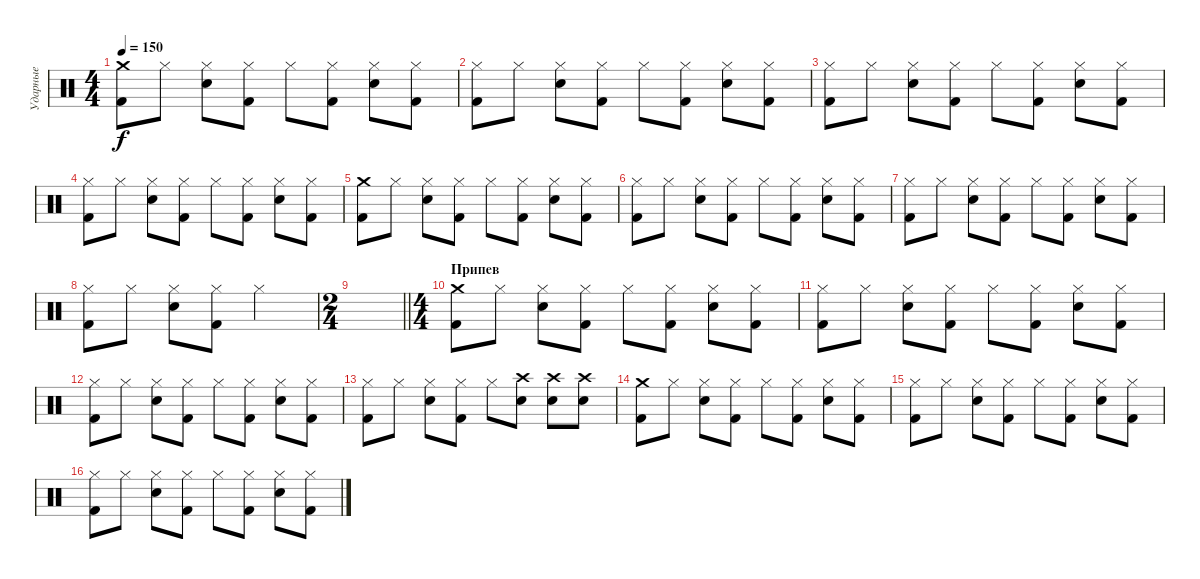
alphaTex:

\track ("Ударные" "Ударные") {instrument percussion}
\staff {score}
\articulation defaults
\ts (4 4)
\tempo 150
\clef neutral
\ks c
("Crash medium (hit)" "Kick (hit) 2").8{dy f} "Hi-Hat (closed)".8 ("Hi-Hat (closed)" "Electric Snare (hit)").8 ("Hi-Hat (closed)" "Kick (hit) 2").8 "Hi-Hat (closed)".8 ("Hi-Hat (closed)" "Kick (hit) 2").8 ("Hi-Hat (closed)" "Electric Snare (hit)").8 ("Hi-Hat (closed)" "Kick (hit) 2").8 |
("Hi-Hat (closed)" "Kick (hit) 2").8 "Hi-Hat (closed)".8 ("Hi-Hat (closed)" "Electric Snare (hit)").8 ("Hi-Hat (closed)" "Kick (hit) 2").8 "Hi-Hat (closed)".8 ("Hi-Hat (closed)" "Kick (hit) 2").8 ("Hi-Hat (closed)" "Electric Snare (hit)").8 ("Hi-Hat (closed)" "Kick (hit) 2").8 |
("Hi-Hat (closed)" "Kick (hit) 2").8 "Hi-Hat (closed)".8 ("Hi-Hat (closed)" "Electric Snare (hit)").8 ("Hi-Hat (closed)" "Kick (hit) 2").8 "Hi-Hat (closed)".8 ("Hi-Hat (closed)" "Kick (hit) 2").8 ("Hi-Hat (closed)" "Electric Snare (hit)").8 ("Hi-Hat (closed)" "Kick (hit) 2").8 |
("Hi-Hat (closed)" "Kick (hit) 2").8 "Hi-Hat (closed)".8 ("Hi-Hat (closed)" "Electric Snare (hit)").8 ("Hi-Hat (closed)" "Kick (hit) 2").8 "Hi-Hat (closed)".8 ("Hi-Hat (closed)" "Kick (hit) 2").8 ("Hi-Hat (closed)" "Electric Snare (hit)").8 ("Hi-Hat (closed)" "Kick (hit) 2").8 |
("Crash medium (hit)" "Kick (hit) 2").8 "Hi-Hat (closed)".8 ("Hi-Hat (closed)" "Electric Snare (hit)").8 ("Hi-Hat (closed)" "Kick (hit) 2").8 "Hi-Hat (closed)".8 ("Hi-Hat (closed)" "Kick (hit) 2").8 ("Hi-Hat (closed)" "Electric Snare (hit)").8 ("Hi-Hat (closed)" "Kick (hit) 2").8 |
("Hi-Hat (closed)" "Kick (hit) 2").8 "Hi-Hat (closed)".8 ("Hi-Hat (closed)" "Electric Snare (hit)").8 ("Hi-Hat (closed)" "Kick (hit) 2").8 "Hi-Hat (closed)".8 ("Hi-Hat (closed)" "Kick (hit) 2").8 ("Hi-Hat (closed)" "Electric Snare (hit)").8 ("Hi-Hat (closed)" "Kick (hit) 2").8 |
("Hi-Hat (closed)" "Kick (hit) 2").8 "Hi-Hat (closed)".8 ("Hi-Hat (closed)" "Electric Snare (hit)").8 ("Hi-Hat (closed)" "Kick (hit) 2").8 "Hi-Hat (closed)".8 ("Hi-Hat (closed)" "Kick (hit) 2").8 ("Hi-Hat (closed)" "Electric Snare (hit)").8 ("Hi-Hat (closed)" "Kick (hit) 2").8 |
("Hi-Hat (closed)" "Kick (hit) 2").8 "Hi-Hat (closed)".8 ("Hi-Hat (closed)" "Electric Snare (hit)").8 ("Hi-Hat (closed)" "Kick (hit) 2").8 "Hi-Hat (closed)".2 |
\ts (2 4)
\barLineRight lightlight
|
\ts (4 4)
\section ("" "Припев")
("Crash medium (hit)" "Kick (hit) 2").8 "Hi-Hat (closed)".8 ("Hi-Hat (closed)" "Electric Snare (hit)").8 ("Hi-Hat (closed)" "Kick (hit) 2").8 "Hi-Hat (closed)".8 ("Hi-Hat (closed)" "Kick (hit) 2").8 ("Hi-Hat (closed)" "Electric Snare (hit)").8 ("Hi-Hat (closed)" "Kick (hit) 2").8 |
("Hi-Hat (closed)" "Kick (hit) 2").8 "Hi-Hat (closed)".8 ("Hi-Hat (closed)" "Electric Snare (hit)").8 ("Hi-Hat (closed)" "Kick (hit) 2").8 "Hi-Hat (closed)".8 ("Hi-Hat (closed)" "Kick (hit) 2").8 ("Hi-Hat (closed)" "Electric Snare (hit)").8 ("Hi-Hat (closed)" "Kick (hit) 2").8 |
("Hi-Hat (closed)" "Kick (hit) 2").8 "Hi-Hat (closed)".8 ("Hi-Hat (closed)" "Electric Snare (hit)").8 ("Hi-Hat (closed)" "Kick (hit) 2").8 "Hi-Hat (closed)".8 ("Hi-Hat (closed)" "Kick (hit) 2").8 ("Hi-Hat (closed)" "Electric Snare (hit)").8 ("Hi-Hat (closed)" "Kick (hit) 2").8 |
("Hi-Hat (closed)" "Kick (hit) 2").8 "Hi-Hat (closed)".8 ("Hi-Hat (closed)" "Electric Snare (hit)").8 ("Hi-Hat (closed)" "Kick (hit) 2").8 "Hi-Hat (closed)".8 ("Crash high (hit)" "Electric Snare (hit)").8 ("Crash high (hit)" "Electric Snare (hit)").8 ("Crash high (hit)" "Electric Snare (hit)").8 |
("Crash medium (hit)" "Kick (hit) 2").8 "Hi-Hat (closed)".8 ("Hi-Hat (closed)" "Electric Snare (hit)").8 ("Hi-Hat (closed)" "Kick (hit) 2").8 "Hi-Hat (closed)".8 ("Hi-Hat (closed)" "Kick (hit) 2").8 ("Hi-Hat (closed)" "Electric Snare (hit)").8 ("Hi-Hat (closed)" "Kick (hit) 2").8 |
("Hi-Hat (closed)" "Kick (hit) 2").8 "Hi-Hat (closed)".8 ("Hi-Hat (closed)" "Electric Snare (hit)").8 ("Hi-Hat (closed)" "Kick (hit) 2").8 "Hi-Hat (closed)".8 ("Hi-Hat (closed)" "Kick (hit) 2").8 ("Hi-Hat (closed)" "Electric Snare (hit)").8 ("Hi-Hat (closed)" "Kick (hit) 2").8 |
("Hi-Hat (closed)" "Kick (hit) 2").8 "Hi-Hat (closed)".8 ("Hi-Hat (closed)" "Electric Snare (hit)").8 ("Hi-Hat (closed)" "Kick (hit) 2").8 "Hi-Hat (closed)".8 ("Hi-Hat (closed)" "Kick (hit) 2").8 ("Hi-Hat (closed)" "Electric Snare (hit)").8 ("Hi-Hat (closed)" "Kick (hit) 2").8
